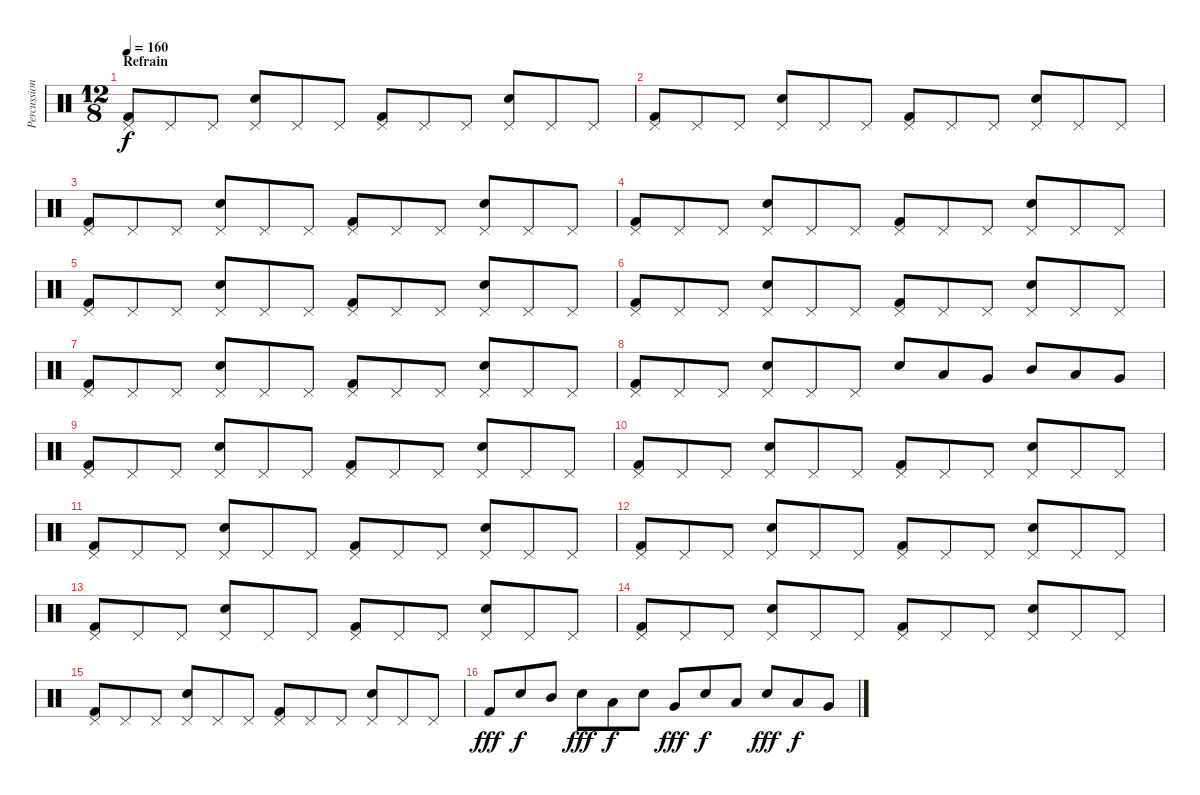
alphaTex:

\track ("Percussions" "Percussion") {instrument percussion}
\staff {score}
\articulation defaults
\ts (12 8)
\section ("" "Refrain")
\tempo 160
\clef neutral
\ks c
("Pedal Hi-Hat (hit)" "Kick (hit) 2").8{dy f} "Pedal Hi-Hat (hit)".8 "Pedal Hi-Hat (hit)".8 ("Pedal Hi-Hat (hit)" "Electric Snare (hit)").8 "Pedal Hi-Hat (hit)".8 "Pedal Hi-Hat (hit)".8 ("Pedal Hi-Hat (hit)" "Kick (hit) 2").8 "Pedal Hi-Hat (hit)".8 "Pedal Hi-Hat (hit)".8 ("Pedal Hi-Hat (hit)" "Electric Snare (hit)").8 "Pedal Hi-Hat (hit)".8 "Pedal Hi-Hat (hit)".8 |
("Pedal Hi-Hat (hit)" "Kick (hit) 2").8 "Pedal Hi-Hat (hit)".8 "Pedal Hi-Hat (hit)".8 ("Pedal Hi-Hat (hit)" "Electric Snare (hit)").8 "Pedal Hi-Hat (hit)".8 "Pedal Hi-Hat (hit)".8 ("Pedal Hi-Hat (hit)" "Kick (hit) 2").8 "Pedal Hi-Hat (hit)".8 "Pedal Hi-Hat (hit)".8 ("Pedal Hi-Hat (hit)" "Electric Snare (hit)").8 "Pedal Hi-Hat (hit)".8 "Pedal Hi-Hat (hit)".8 |
("Pedal Hi-Hat (hit)" "Kick (hit) 2").8 "Pedal Hi-Hat (hit)".8 "Pedal Hi-Hat (hit)".8 ("Pedal Hi-Hat (hit)" "Electric Snare (hit)").8 "Pedal Hi-Hat (hit)".8 "Pedal Hi-Hat (hit)".8 ("Pedal Hi-Hat (hit)" "Kick (hit) 2").8 "Pedal Hi-Hat (hit)".8 "Pedal Hi-Hat (hit)".8 ("Pedal Hi-Hat (hit)" "Electric Snare (hit)").8 "Pedal Hi-Hat (hit)".8 "Pedal Hi-Hat (hit)".8 |
("Pedal Hi-Hat (hit)" "Kick (hit) 2").8 "Pedal Hi-Hat (hit)".8 "Pedal Hi-Hat (hit)".8 ("Pedal Hi-Hat (hit)" "Electric Snare (hit)").8 "Pedal Hi-Hat (hit)".8 "Pedal Hi-Hat (hit)".8 ("Pedal Hi-Hat (hit)" "Kick (hit) 2").8 "Pedal Hi-Hat (hit)".8 "Pedal Hi-Hat (hit)".8 ("Pedal Hi-Hat (hit)" "Electric Snare (hit)").8 "Pedal Hi-Hat (hit)".8 "Pedal Hi-Hat (hit)".8 |
("Pedal Hi-Hat (hit)" "Kick (hit) 2").8 "Pedal Hi-Hat (hit)".8 "Pedal Hi-Hat (hit)".8 ("Pedal Hi-Hat (hit)" "Electric Snare (hit)").8 "Pedal Hi-Hat (hit)".8 "Pedal Hi-Hat (hit)".8 ("Pedal Hi-Hat (hit)" "Kick (hit) 2").8 "Pedal Hi-Hat (hit)".8 "Pedal Hi-Hat (hit)".8 ("Pedal Hi-Hat (hit)" "Electric Snare (hit)").8 "Pedal Hi-Hat (hit)".8 "Pedal Hi-Hat (hit)".8 |
("Pedal Hi-Hat (hit)" "Kick (hit) 2").8 "Pedal Hi-Hat (hit)".8 "Pedal Hi-Hat (hit)".8 ("Pedal Hi-Hat (hit)" "Electric Snare (hit)").8 "Pedal Hi-Hat (hit)".8 "Pedal Hi-Hat (hit)".8 ("Pedal Hi-Hat (hit)" "Kick (hit) 2").8 "Pedal Hi-Hat (hit)".8 "Pedal Hi-Hat (hit)".8 ("Pedal Hi-Hat (hit)" "Electric Snare (hit)").8 "Pedal Hi-Hat (hit)".8 "Pedal Hi-Hat (hit)".8 |
("Pedal Hi-Hat (hit)" "Kick (hit) 2").8 "Pedal Hi-Hat (hit)".8 "Pedal Hi-Hat (hit)".8 ("Pedal Hi-Hat (hit)" "Electric Snare (hit)").8 "Pedal Hi-Hat (hit)".8 "Pedal Hi-Hat (hit)".8 ("Pedal Hi-Hat (hit)" "Kick (hit) 2").8 "Pedal Hi-Hat (hit)".8 "Pedal Hi-Hat (hit)".8 ("Pedal Hi-Hat (hit)" "Electric Snare (hit)").8 "Pedal Hi-Hat (hit)".8 "Pedal Hi-Hat (hit)".8 |
("Pedal Hi-Hat (hit)" "Kick (hit) 2").8 "Pedal Hi-Hat (hit)".8 "Pedal Hi-Hat (hit)".8 ("Pedal Hi-Hat (hit)" "Electric Snare (hit)").8 "Pedal Hi-Hat (hit)".8 "Pedal Hi-Hat (hit)".8 "Electric Snare (hit)".8 "Low Tom (hit)".8 "Very Low Tom (hit)".8 "Mid Tom (hit)".8 "Low Tom (hit)".8 "Very Low Tom (hit)".8 |
("Pedal Hi-Hat (hit)" "Kick (hit) 2").8 "Pedal Hi-Hat (hit)".8 "Pedal Hi-Hat (hit)".8 ("Pedal Hi-Hat (hit)" "Electric Snare (hit)").8 "Pedal Hi-Hat (hit)".8 "Pedal Hi-Hat (hit)".8 ("Pedal Hi-Hat (hit)" "Kick (hit) 2").8 "Pedal Hi-Hat (hit)".8 "Pedal Hi-Hat (hit)".8 ("Pedal Hi-Hat (hit)" "Electric Snare (hit)").8 "Pedal Hi-Hat (hit)".8 "Pedal Hi-Hat (hit)".8 |
("Pedal Hi-Hat (hit)" "Kick (hit) 2").8 "Pedal Hi-Hat (hit)".8 "Pedal Hi-Hat (hit)".8 ("Pedal Hi-Hat (hit)" "Electric Snare (hit)").8 "Pedal Hi-Hat (hit)".8 "Pedal Hi-Hat (hit)".8 ("Pedal Hi-Hat (hit)" "Kick (hit) 2").8 "Pedal Hi-Hat (hit)".8 "Pedal Hi-Hat (hit)".8 ("Pedal Hi-Hat (hit)" "Electric Snare (hit)").8 "Pedal Hi-Hat (hit)".8 "Pedal Hi-Hat (hit)".8 |
("Pedal Hi-Hat (hit)" "Kick (hit) 2").8 "Pedal Hi-Hat (hit)".8 "Pedal Hi-Hat (hit)".8 ("Pedal Hi-Hat (hit)" "Electric Snare (hit)").8 "Pedal Hi-Hat (hit)".8 "Pedal Hi-Hat (hit)".8 ("Pedal Hi-Hat (hit)" "Kick (hit) 2").8 "Pedal Hi-Hat (hit)".8 "Pedal Hi-Hat (hit)".8 ("Pedal Hi-Hat (hit)" "Electric Snare (hit)").8 "Pedal Hi-Hat (hit)".8 "Pedal Hi-Hat (hit)".8 |
("Pedal Hi-Hat (hit)" "Kick (hit) 2").8 "Pedal Hi-Hat (hit)".8 "Pedal Hi-Hat (hit)".8 ("Pedal Hi-Hat (hit)" "Electric Snare (hit)").8 "Pedal Hi-Hat (hit)".8 "Pedal Hi-Hat (hit)".8 ("Pedal Hi-Hat (hit)" "Kick (hit) 2").8 "Pedal Hi-Hat (hit)".8 "Pedal Hi-Hat (hit)".8 ("Pedal Hi-Hat (hit)" "Electric Snare (hit)").8 "Pedal Hi-Hat (hit)".8 "Pedal Hi-Hat (hit)".8 |
("Pedal Hi-Hat (hit)" "Kick (hit) 2").8 "Pedal Hi-Hat (hit)".8 "Pedal Hi-Hat (hit)".8 ("Pedal Hi-Hat (hit)" "Electric Snare (hit)").8 "Pedal Hi-Hat (hit)".8 "Pedal Hi-Hat (hit)".8 ("Pedal Hi-Hat (hit)" "Kick (hit) 2").8 "Pedal Hi-Hat (hit)".8 "Pedal Hi-Hat (hit)".8 ("Pedal Hi-Hat (hit)" "Electric Snare (hit)").8 "Pedal Hi-Hat (hit)".8 "Pedal Hi-Hat (hit)".8 |
("Pedal Hi-Hat (hit)" "Kick (hit) 2").8 "Pedal Hi-Hat (hit)".8 "Pedal Hi-Hat (hit)".8 ("Pedal Hi-Hat (hit)" "Electric Snare (hit)").8 "Pedal Hi-Hat (hit)".8 "Pedal Hi-Hat (hit)".8 ("Pedal Hi-Hat (hit)" "Kick (hit) 2").8 "Pedal Hi-Hat (hit)".8 "Pedal Hi-Hat (hit)".8 ("Pedal Hi-Hat (hit)" "Electric Snare (hit)").8 "Pedal Hi-Hat (hit)".8 "Pedal Hi-Hat (hit)".8 |
("Pedal Hi-Hat (hit)" "Kick (hit) 2").8 "Pedal Hi-Hat (hit)".8 "Pedal Hi-Hat (hit)".8 ("Pedal Hi-Hat (hit)" "Electric Snare (hit)").8 "Pedal Hi-Hat (hit)".8 "Pedal Hi-Hat (hit)".8 ("Pedal Hi-Hat (hit)" "Kick (hit) 2").8 "Pedal Hi-Hat (hit)".8 "Pedal Hi-Hat (hit)".8 ("Pedal Hi-Hat (hit)" "Electric Snare (hit)").8 "Pedal Hi-Hat (hit)".8 "Pedal Hi-Hat (hit)".8 |
"Kick (hit) 2".8{dy fff} "Electric Snare (hit)".8{dy f} "Mid Tom (hit)".8 "Electric Snare (hit)".8{dy fff} "Low Tom (hit)".8{dy f} "Snare (hit) 2".8 "Very Low Tom (hit)".8{dy fff} "Snare (hit) 2".8{dy f} "Low Floor Tom (hit)".8 "Electric Snare (hit)".8{dy fff} "Low Tom (hit)".8{dy f} "Very Low Tom (hit)".8
